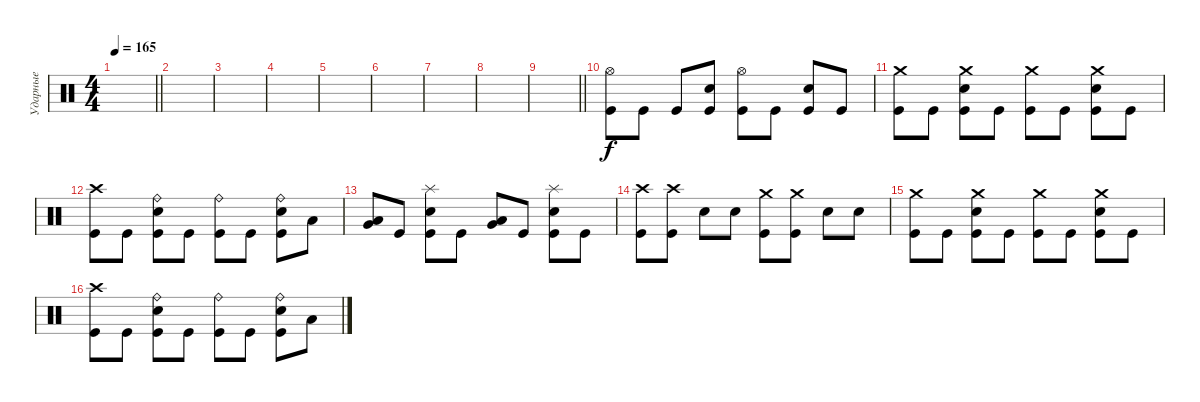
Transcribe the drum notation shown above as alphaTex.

\track ("Ударные" "Ударные") {instrument percussion}
\staff {score}
\articulation defaults
\ts (4 4)
\tempo 165
\clef neutral
\barLineRight lightlight
\ks c
|
\section ("" " ")
|
|
|
|
|
|
|
\barLineRight lightlight
|
\section ("" " ")
("Hi-Hat (open)" "Kick (hit)").8 "Kick (hit)".8 "Kick (hit)".8 ("Electric Snare (hit)" "Kick (hit)").8 ("Hi-Hat (open)" "Kick (hit)").8 "Kick (hit)".8 ("Electric Snare (hit)" "Kick (hit)").8 "Kick (hit)".8 |
("Crash medium (hit)" "Kick (hit)").8 "Kick (hit)".8 ("Crash medium (hit)" "Electric Snare (hit)" "Kick (hit)").8 "Kick (hit)".8 ("Crash medium (hit)" "Kick (hit)").8 "Kick (hit)".8 ("Crash medium (hit)" "Electric Snare (hit)" "Kick (hit)").8 "Kick (hit)".8 |
("Crash high (hit)" "Kick (hit)").8 "Kick (hit)".8 ("Ride (bell)" "Electric Snare (hit)" "Kick (hit)").8 "Kick (hit)".8 ("Ride (bell)" "Kick (hit)").8 "Kick (hit)".8 ("Ride (bell)" "Electric Snare (hit)" "Kick (hit)").8 "Low Tom (hit)".8 |
("Low Tom (hit)" "Very Low Tom (hit)").8 "Kick (hit)".8 ("Splash (hit)" "Electric Snare (hit)" "Kick (hit)").8 "Kick (hit)".8 ("Very Low Tom (hit)" "Low Floor Tom (hit)").8 "Kick (hit)".8 ("Splash (hit)" "Electric Snare (hit)" "Kick (hit)").8 "Kick (hit)".8 |
("Crash high (hit)" "Kick (hit)").8 ("Crash high (hit)" "Kick (hit)").8 "Electric Snare (hit)".8 "Electric Snare (hit)".8 ("Crash medium (hit)" "Kick (hit)").8 ("Crash medium (hit)" "Kick (hit)").8 "Electric Snare (hit)".8 "Electric Snare (hit)".8 |
("Crash medium (hit)" "Kick (hit)").8 "Kick (hit)".8 ("Crash medium (hit)" "Electric Snare (hit)" "Kick (hit)").8 "Kick (hit)".8 ("Crash medium (hit)" "Kick (hit)").8 "Kick (hit)".8 ("Crash medium (hit)" "Electric Snare (hit)" "Kick (hit)").8 "Kick (hit)".8 |
("Crash high (hit)" "Kick (hit)").8 "Kick (hit)".8 ("Ride (bell)" "Electric Snare (hit)" "Kick (hit)").8 "Kick (hit)".8 ("Ride (bell)" "Kick (hit)").8 "Kick (hit)".8 ("Ride (bell)" "Electric Snare (hit)" "Kick (hit)").8 "Low Tom (hit)".8
